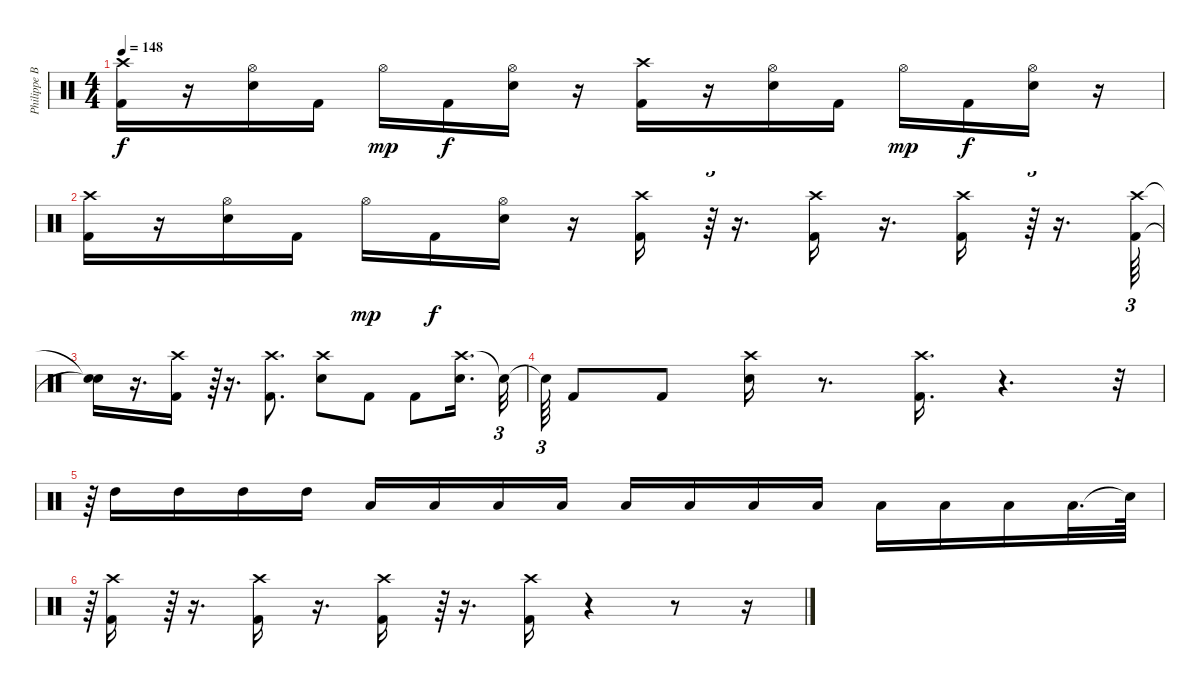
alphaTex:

\track ("Philippe Borda" "Philippe B") {instrument percussion}
\staff {score}
\articulation defaults
\ts (4 4)
\tempo 148
\clef neutral
\ks c
("Crash high (hit)" "Kick (hit) 2").16{dy f} r.16 ("Hi-Hat (open)" "Snare (hit) 2").16 "Kick (hit) 2".16 "Hi-Hat (open)".16{dy mp} "Kick (hit) 2".16{dy f} ("Hi-Hat (open)" "Snare (hit) 2").16 r.16 ("Crash high (hit)" "Kick (hit) 2").16 r.16 ("Hi-Hat (open)" "Snare (hit) 2").16 "Kick (hit) 2".16 "Hi-Hat (open)".16{dy mp} "Kick (hit) 2".16{dy f} ("Hi-Hat (open)" "Snare (hit) 2").16 r.16 |
("Crash high (hit)" "Kick (hit) 2").16 r.16 ("Snare (hit) 2" "Hi-Hat (open)").16 "Kick (hit) 2".16 "Hi-Hat (open)".16{dy mp} "Kick (hit) 2".16{dy f} ("Snare (hit) 2" "Hi-Hat (open)").16 r.16 ("Crash high (hit)" "Kick (hit) 2").16 r.64{tu (3 2)} r.16{d} ("Kick (hit) 2" "Crash high (hit)").16 r.16{d} ("Crash high (hit)" "Kick (hit) 2").16 r.64{tu (3 2)} r.16{d} ("Crash high (hit)" "Kick (hit) 2").64{tu (3 2)} |
("Snare (hit)"{t} "Snare (hit)"{t}).16 r.16{d} ("Crash high (hit)" "Kick (hit) 2").16 r.64{tu (3 2)} r.16{d} ("Kick (hit) 2" "Crash high (hit)").8{d} ("Crash high (hit)" "Snare (hit) 2").8 "Kick (hit) 2".8 "Kick (hit) 2".8 ("Crash high (hit)" "Snare (hit) 2").16{d} "Snare (hit)"{t}.32{tu (3 2)} |
"Snare (hit)"{t}.64{tu (3 2)} "Kick (hit) 2".8 "Kick (hit) 2".8 ("Snare (hit) 2" "Crash high (hit)").16 r.8{d} ("Crash high (hit)" "Kick (hit) 2").16{d} r.4{d} r.32{tu (3 2)} |
r.64{tu (3 2)} "High Tom (hit)".16 "High Tom (hit)".16 "High Tom (hit)".16 "High Tom (hit)".16 "Low Tom (hit)".16 "Low Tom (hit)".16 "Low Tom (hit)".16 "Low Tom (hit)".16 "Low Floor Tom (hit)".16 "Low Floor Tom (hit)".16 "Low Floor Tom (hit)".16 "Low Floor Tom (hit)".16 "Low Floor Tom (hit)".16 "Low Floor Tom (hit)".16 "Low Floor Tom (hit)".16 "Low Floor Tom (hit)".32{d} "Snare (hit)"{t}.64 |
r.64{tu (3 2)} ("Crash high (hit)" "Kick (hit) 2").16 r.64{tu (3 2)} r.16{d} ("Kick (hit) 2" "Crash high (hit)").16 r.16{d} ("Crash high (hit)" "Kick (hit) 2").16 r.64{tu (3 2)} r.16{d} ("Kick (hit) 2" "Crash high (hit)").16 r.4 r.8 r.16
